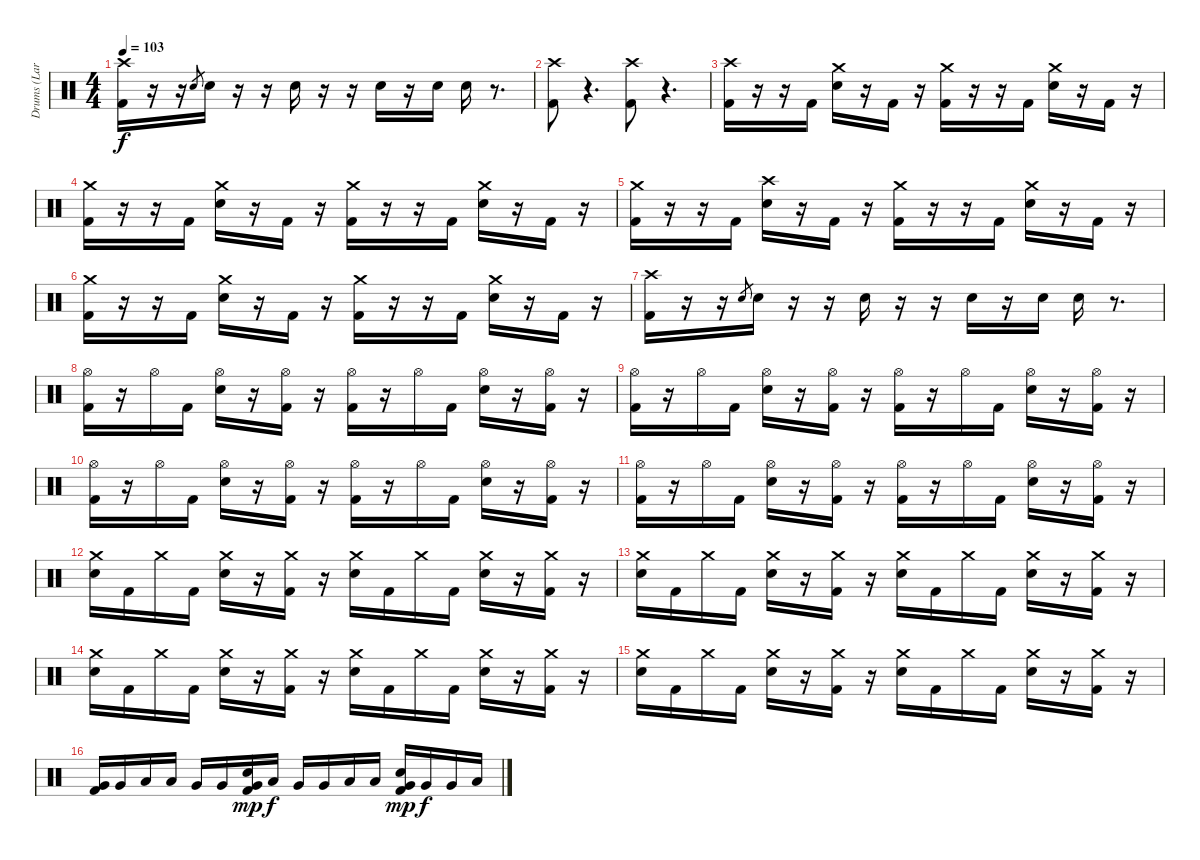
\track ("Drums (Lars)" "Drums (Lar") {instrument percussion}
\staff {score}
\articulation defaults
\ts (4 4)
\tempo 103
\clef neutral
\ks c
("Crash high (hit)" "Kick (hit) 2").16{dy f} r.16 r.16 "Snare (hit) 2".8{gr} "Snare (hit) 2".16 r.16 r.16 "Snare (hit) 2".16 r.16 r.16 "Snare (hit) 2".16 r.16 "Snare (hit) 2".16 "Snare (hit) 2".16 r.8{d} |
("Crash high (hit)" "Kick (hit) 2").8 r.4{d} ("Crash high (hit)" "Kick (hit) 2").8 r.4{d} |
("Crash high (hit)" "Kick (hit) 2").16 r.16 r.16 "Kick (hit) 2".16 ("Crash medium (hit)" "Snare (hit) 2").16 r.16 "Kick (hit) 2".16 r.16 ("Crash medium (hit)" "Kick (hit) 2").16 r.16 r.16 "Kick (hit) 2".16 ("Crash medium (hit)" "Snare (hit) 2").16 r.16 "Kick (hit) 2".16 r.16 |
("Crash medium (hit)" "Kick (hit) 2").16 r.16 r.16 "Kick (hit) 2".16 ("Crash medium (hit)" "Snare (hit) 2").16 r.16 "Kick (hit) 2".16 r.16 ("Crash medium (hit)" "Kick (hit) 2").16 r.16 r.16 "Kick (hit) 2".16 ("Crash medium (hit)" "Snare (hit) 2").16 r.16 "Kick (hit) 2".16 r.16 |
("Crash medium (hit)" "Kick (hit) 2").16 r.16 r.16 "Kick (hit) 2".16 ("Crash high (hit)" "Snare (hit) 2").16 r.16 "Kick (hit) 2".16 r.16 ("Crash medium (hit)" "Kick (hit) 2").16 r.16 r.16 "Kick (hit) 2".16 ("Crash medium (hit)" "Snare (hit) 2").16 r.16 "Kick (hit) 2".16 r.16 |
("Crash medium (hit)" "Kick (hit) 2").16 r.16 r.16 "Kick (hit) 2".16 ("Crash medium (hit)" "Snare (hit) 2").16 r.16 "Kick (hit) 2".16 r.16 ("Crash medium (hit)" "Kick (hit) 2").16 r.16 r.16 "Kick (hit) 2".16 ("Crash medium (hit)" "Snare (hit) 2").16 r.16 "Kick (hit) 2".16 r.16 |
("Crash high (hit)" "Kick (hit) 2").16 r.16 r.16 "Snare (hit) 2".8{gr} "Snare (hit) 2".16 r.16 r.16 "Snare (hit) 2".16 r.16 r.16 "Snare (hit) 2".16 r.16 "Snare (hit) 2".16 "Snare (hit) 2".16 r.8{d} |
("Hi-Hat (open)" "Kick (hit) 2").16 r.16 "Hi-Hat (open)".16 "Kick (hit) 2".16 ("Hi-Hat (open)" "Snare (hit) 2").16 r.16 ("Hi-Hat (open)" "Kick (hit) 2").16 r.16 ("Hi-Hat (open)" "Kick (hit) 2").16 r.16 "Hi-Hat (open)".16 "Kick (hit) 2".16 ("Hi-Hat (open)" "Snare (hit) 2").16 r.16 ("Hi-Hat (open)" "Kick (hit) 2").16 r.16 |
("Hi-Hat (open)" "Kick (hit) 2").16 r.16 "Hi-Hat (open)".16 "Kick (hit) 2".16 ("Hi-Hat (open)" "Snare (hit) 2").16 r.16 ("Hi-Hat (open)" "Kick (hit) 2").16 r.16 ("Hi-Hat (open)" "Kick (hit) 2").16 r.16 "Hi-Hat (open)".16 "Kick (hit) 2".16 ("Hi-Hat (open)" "Snare (hit) 2").16 r.16 ("Hi-Hat (open)" "Kick (hit) 2").16 r.16 |
("Hi-Hat (open)" "Kick (hit) 2").16 r.16 "Hi-Hat (open)".16 "Kick (hit) 2".16 ("Hi-Hat (open)" "Snare (hit) 2").16 r.16 ("Hi-Hat (open)" "Kick (hit) 2").16 r.16 ("Hi-Hat (open)" "Kick (hit) 2").16 r.16 "Hi-Hat (open)".16 "Kick (hit) 2".16 ("Hi-Hat (open)" "Snare (hit) 2").16 r.16 ("Hi-Hat (open)" "Kick (hit) 2").16 r.16 |
("Hi-Hat (open)" "Kick (hit) 2").16 r.16 "Hi-Hat (open)".16 "Kick (hit) 2".16 ("Hi-Hat (open)" "Snare (hit) 2").16 r.16 ("Hi-Hat (open)" "Kick (hit) 2").16 r.16 ("Hi-Hat (open)" "Kick (hit) 2").16 r.16 "Hi-Hat (open)".16 "Kick (hit) 2".16 ("Hi-Hat (open)" "Snare (hit) 2").16 r.16 ("Hi-Hat (open)" "Kick (hit) 2").16 r.16 |
("Crash medium (hit)" "Snare (hit) 2").16 "Kick (hit) 2".16 "Crash medium (hit)".16 "Kick (hit) 2".16 ("Crash medium (hit)" "Snare (hit) 2").16 r.16 ("Crash medium (hit)" "Kick (hit) 2").16 r.16 ("Crash medium (hit)" "Snare (hit) 2").16 "Kick (hit) 2".16 "Crash medium (hit)".16 "Kick (hit) 2".16 ("Crash medium (hit)" "Snare (hit) 2").16 r.16 ("Crash medium (hit)" "Kick (hit) 2").16 r.16 |
("Crash medium (hit)" "Snare (hit) 2").16 "Kick (hit) 2".16 "Crash medium (hit)".16 "Kick (hit) 2".16 ("Crash medium (hit)" "Snare (hit) 2").16 r.16 ("Crash medium (hit)" "Kick (hit) 2").16 r.16 ("Crash medium (hit)" "Snare (hit) 2").16 "Kick (hit) 2".16 "Crash medium (hit)".16 "Kick (hit) 2".16 ("Crash medium (hit)" "Snare (hit) 2").16 r.16 ("Crash medium (hit)" "Kick (hit) 2").16 r.16 |
("Crash medium (hit)" "Snare (hit) 2").16 "Kick (hit) 2".16 "Crash medium (hit)".16 "Kick (hit) 2".16 ("Crash medium (hit)" "Snare (hit) 2").16 r.16 ("Crash medium (hit)" "Kick (hit) 2").16 r.16 ("Crash medium (hit)" "Snare (hit) 2").16 "Kick (hit) 2".16 "Crash medium (hit)".16 "Kick (hit) 2".16 ("Crash medium (hit)" "Snare (hit) 2").16 r.16 ("Crash medium (hit)" "Kick (hit) 2").16 r.16 |
("Crash medium (hit)" "Snare (hit) 2").16 "Kick (hit) 2".16 "Crash medium (hit)".16 "Kick (hit) 2".16 ("Crash medium (hit)" "Snare (hit) 2").16 r.16 ("Crash medium (hit)" "Kick (hit) 2").16 r.16 ("Crash medium (hit)" "Snare (hit) 2").16 "Kick (hit) 2".16 "Crash medium (hit)".16 "Kick (hit) 2".16 ("Crash medium (hit)" "Snare (hit) 2").16 r.16 ("Crash medium (hit)" "Kick (hit) 2").16 r.16 |
("Very Low Tom (hit)" "Kick (hit) 2").16 "Very Low Tom (hit)".16 "Low Tom (hit)".16 "Low Tom (hit)".16 "Very Low Tom (hit)".16 "Very Low Tom (hit)".16 ("Very Low Tom (hit)" "Snare (hit) 2" "Kick (hit) 2").16{dy mp} "Low Floor Tom (hit)".16{dy f} "Very Low Tom (hit)".16 "Very Low Tom (hit)".16 "Low Tom (hit)".16 "Low Tom (hit)".16 ("Very Low Tom (hit)" "Snare (hit) 2" "Kick (hit) 2").16{dy mp} "Very Low Tom (hit)".16{dy f} "Very Low Tom (hit)".16 "Low Floor Tom (hit)".16
